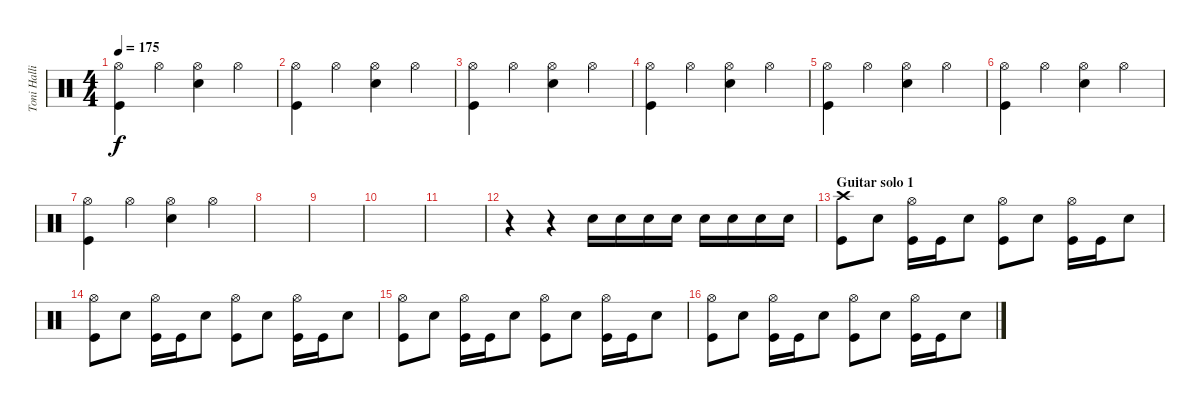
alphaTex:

\track ("Toni Hallio" "Toni Halli") {instrument percussion}
\staff {score}
\articulation defaults
\ts (4 4)
\tempo 175
\clef neutral
\ks c
("Hi-Hat (open)" "Kick (hit)").4{dy f} "Hi-Hat (open)".4 ("Hi-Hat (open)" "Snare (hit) 2").4 "Hi-Hat (open)".4 |
("Hi-Hat (open)" "Kick (hit)").4 "Hi-Hat (open)".4 ("Hi-Hat (open)" "Snare (hit) 2").4 "Hi-Hat (open)".4 |
("Hi-Hat (open)" "Kick (hit)").4 "Hi-Hat (open)".4 ("Hi-Hat (open)" "Snare (hit) 2").4 "Hi-Hat (open)".4 |
("Hi-Hat (open)" "Kick (hit)").4 "Hi-Hat (open)".4 ("Hi-Hat (open)" "Snare (hit) 2").4 "Hi-Hat (open)".4 |
("Hi-Hat (open)" "Kick (hit)").4 "Hi-Hat (open)".4 ("Hi-Hat (open)" "Snare (hit) 2").4 "Hi-Hat (open)".4 |
("Hi-Hat (open)" "Kick (hit)").4 "Hi-Hat (open)".4 ("Hi-Hat (open)" "Snare (hit) 2").4 "Hi-Hat (open)".4 |
("Hi-Hat (open)" "Kick (hit)").4 "Hi-Hat (open)".4 ("Hi-Hat (open)" "Snare (hit) 2").4 "Hi-Hat (open)".4 |
|
|
|
|
r.4 r.4 "Snare (hit) 2".16 "Snare (hit) 2".16 "Snare (hit) 2".16 "Snare (hit) 2".16 "Snare (hit) 2".16 "Snare (hit) 2".16 "Snare (hit) 2".16 "Snare (hit) 2".16 |
\section ("" "Guitar solo 1")
("Crash high (hit)" "Kick (hit)").8 "Snare (hit) 2".8 ("Hi-Hat (open)" "Kick (hit)").16 "Kick (hit)".16 "Snare (hit) 2".8 ("Hi-Hat (open)" "Kick (hit)").8 "Snare (hit) 2".8 ("Hi-Hat (open)" "Kick (hit)").16 "Kick (hit)".16 "Snare (hit) 2".8 |
("Hi-Hat (open)" "Kick (hit)").8 "Snare (hit) 2".8 ("Hi-Hat (open)" "Kick (hit)").16 "Kick (hit)".16 "Snare (hit) 2".8 ("Hi-Hat (open)" "Kick (hit)").8 "Snare (hit) 2".8 ("Hi-Hat (open)" "Kick (hit)").16 "Kick (hit)".16 "Snare (hit) 2".8 |
("Hi-Hat (open)" "Kick (hit)").8 "Snare (hit) 2".8 ("Hi-Hat (open)" "Kick (hit)").16 "Kick (hit)".16 "Snare (hit) 2".8 ("Hi-Hat (open)" "Kick (hit)").8 "Snare (hit) 2".8 ("Hi-Hat (open)" "Kick (hit)").16 "Kick (hit)".16 "Snare (hit) 2".8 |
("Hi-Hat (open)" "Kick (hit)").8 "Snare (hit) 2".8 ("Hi-Hat (open)" "Kick (hit)").16 "Kick (hit)".16 "Snare (hit) 2".8 ("Hi-Hat (open)" "Kick (hit)").8 "Snare (hit) 2".8 ("Hi-Hat (open)" "Kick (hit)").16 "Kick (hit)".16 "Snare (hit) 2".8
